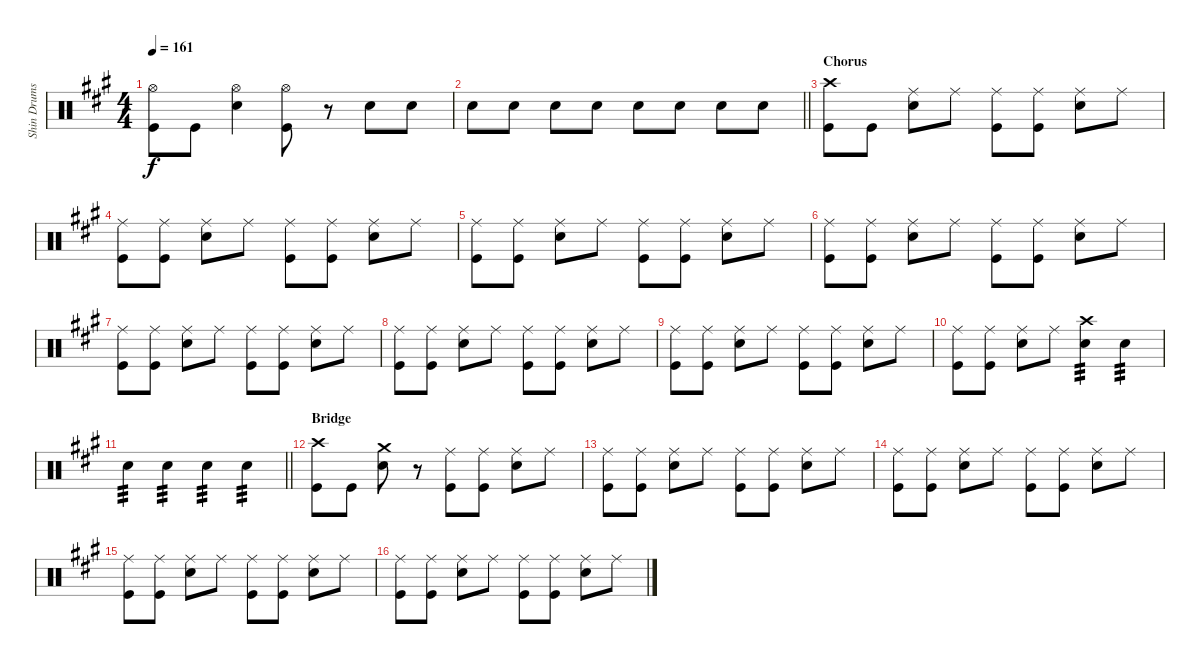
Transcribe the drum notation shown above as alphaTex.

\track ("Shin Drums" "Shin Drums") {instrument percussion}
\staff {score}
\articulation defaults
\ts (4 4)
\tempo 161
\clef neutral
\ks a
("Hi-Hat (open)" "Kick (hit)").8{dy f} "Kick (hit)".8 ("Hi-Hat (open)" "Snare (hit) 2").4 ("Hi-Hat (open)" "Kick (hit)").8 r.8 "Snare (hit) 2".8 "Snare (hit) 2".8 |
\barLineRight lightlight "Snare (hit) 2".8 "Snare (hit) 2".8 "Snare (hit) 2".8 "Snare (hit) 2".8 "Snare (hit) 2".8 "Snare (hit) 2".8 "Snare (hit) 2".8 "Snare (hit) 2".8
|
\section ("" "Chorus")
("Crash high (hit)" "Kick (hit)").8 "Kick (hit)".8 ("Ride (middle)" "Snare (hit) 2").8 "Ride (middle)".8 ("Ride (middle)" "Kick (hit)").8 ("Ride (middle)" "Kick (hit)").8 ("Ride (middle)" "Snare (hit) 2").8 "Ride (middle)".8 |
("Ride (middle)" "Kick (hit)").8 ("Ride (middle)" "Kick (hit)").8 ("Ride (middle)" "Snare (hit) 2").8 "Ride (middle)".8 ("Ride (middle)" "Kick (hit)").8 ("Ride (middle)" "Kick (hit)").8 ("Ride (middle)" "Snare (hit) 2").8 "Ride (middle)".8 |
("Ride (middle)" "Kick (hit)").8 ("Ride (middle)" "Kick (hit)").8 ("Ride (middle)" "Snare (hit) 2").8 "Ride (middle)".8 ("Ride (middle)" "Kick (hit)").8 ("Ride (middle)" "Kick (hit)").8 ("Ride (middle)" "Snare (hit) 2").8 "Ride (middle)".8 |
("Ride (middle)" "Kick (hit)").8 ("Ride (middle)" "Kick (hit)").8 ("Ride (middle)" "Snare (hit) 2").8 "Ride (middle)".8 ("Ride (middle)" "Kick (hit)").8 ("Ride (middle)" "Kick (hit)").8 ("Ride (middle)" "Snare (hit) 2").8 "Ride (middle)".8 |
("Ride (middle)" "Kick (hit)").8 ("Ride (middle)" "Kick (hit)").8 ("Ride (middle)" "Snare (hit) 2").8 "Ride (middle)".8 ("Ride (middle)" "Kick (hit)").8 ("Ride (middle)" "Kick (hit)").8 ("Ride (middle)" "Snare (hit) 2").8 "Ride (middle)".8 |
("Ride (middle)" "Kick (hit)").8 ("Ride (middle)" "Kick (hit)").8 ("Ride (middle)" "Snare (hit) 2").8 "Ride (middle)".8 ("Ride (middle)" "Kick (hit)").8 ("Ride (middle)" "Kick (hit)").8 ("Ride (middle)" "Snare (hit) 2").8 "Ride (middle)".8 |
("Ride (middle)" "Kick (hit)").8 ("Ride (middle)" "Kick (hit)").8 ("Ride (middle)" "Snare (hit) 2").8 "Ride (middle)".8 ("Ride (middle)" "Kick (hit)").8 ("Ride (middle)" "Kick (hit)").8 ("Ride (middle)" "Snare (hit) 2").8 "Ride (middle)".8 |
("Ride (middle)" "Kick (hit)").8 ("Ride (middle)" "Kick (hit)").8 ("Ride (middle)" "Snare (hit) 2").8 "Ride (middle)".8 ("Crash high (hit)" "Snare (hit) 2").4{tp 3} "Snare (hit) 2".4{tp 3} |
\barLineRight lightlight "Snare (hit) 2".4{tp 3} "Snare (hit) 2".4{tp 3} "Snare (hit) 2".4{tp 3} "Snare (hit) 2".4{tp 3}
|
\section ("" "Bridge")
("Crash high (hit)" "Kick (hit)").8 "Kick (hit)".8 ("Crash medium (hit)" "Snare (hit) 2").8 r.8 ("Ride (middle)" "Kick (hit)").8 ("Ride (middle)" "Kick (hit)").8 ("Ride (middle)" "Snare (hit) 2").8 "Ride (middle)".8 |
("Ride (middle)" "Kick (hit)").8 ("Ride (middle)" "Kick (hit)").8 ("Ride (middle)" "Snare (hit) 2").8 "Ride (middle)".8 ("Ride (middle)" "Kick (hit)").8 ("Ride (middle)" "Kick (hit)").8 ("Ride (middle)" "Snare (hit) 2").8 "Ride (middle)".8 |
("Ride (middle)" "Kick (hit)").8 ("Ride (middle)" "Kick (hit)").8 ("Ride (middle)" "Snare (hit) 2").8 "Ride (middle)".8 ("Ride (middle)" "Kick (hit)").8 ("Ride (middle)" "Kick (hit)").8 ("Ride (middle)" "Snare (hit) 2").8 "Ride (middle)".8 |
("Ride (middle)" "Kick (hit)").8 ("Ride (middle)" "Kick (hit)").8 ("Ride (middle)" "Snare (hit) 2").8 "Ride (middle)".8 ("Ride (middle)" "Kick (hit)").8 ("Ride (middle)" "Kick (hit)").8 ("Ride (middle)" "Snare (hit) 2").8 "Ride (middle)".8 |
("Ride (middle)" "Kick (hit)").8 ("Ride (middle)" "Kick (hit)").8 ("Ride (middle)" "Snare (hit) 2").8 "Ride (middle)".8 ("Ride (middle)" "Kick (hit)").8 ("Ride (middle)" "Kick (hit)").8 ("Ride (middle)" "Snare (hit) 2").8 "Ride (middle)".8
